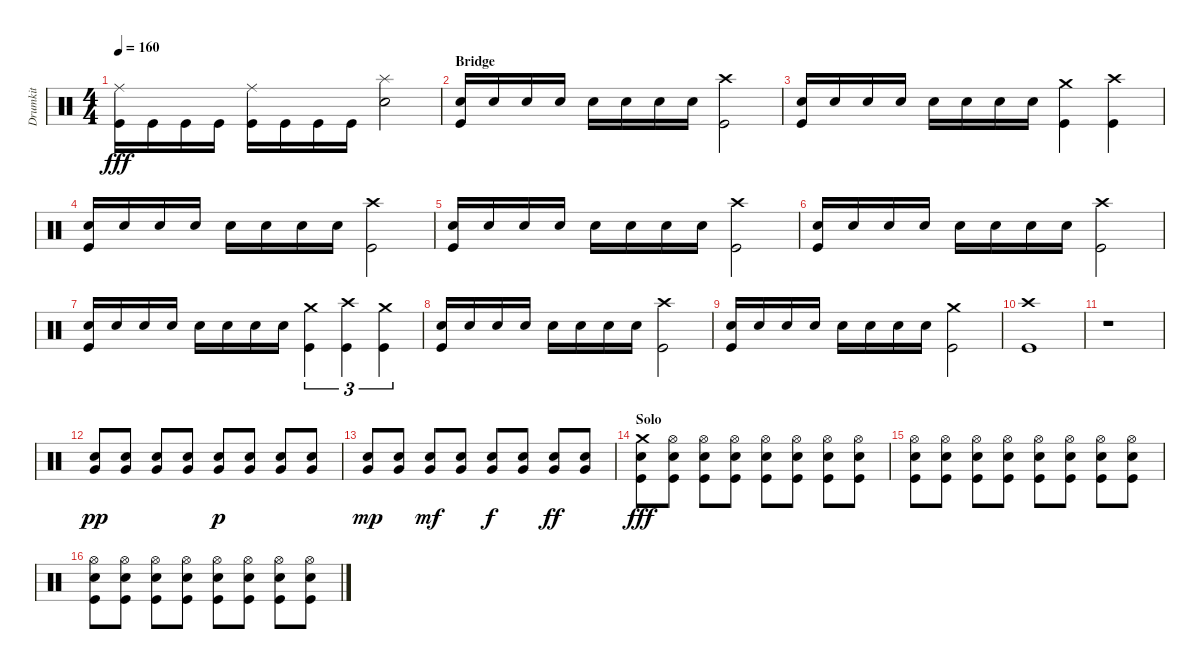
\track ("Drumkit" "Drumkit") {instrument percussion}
\staff {score}
\articulation defaults
\ts (4 4)
\tempo 160
\clef neutral
\ks c
("Kick (hit)" "Ride (middle)").16{dy fff} "Kick (hit)".16 "Kick (hit)".16 "Kick (hit)".16 ("Kick (hit)" "Ride (middle)").16 "Kick (hit)".16 "Kick (hit)".16 "Kick (hit)".16 ("Snare (hit) 2" "Splash (hit)").2 |
\section ("" "Bridge")
("Snare (hit) 2" "Kick (hit)").16 "Snare (hit) 2".16 "Snare (hit) 2".16 "Snare (hit) 2".16 "Snare (hit) 2".16 "Snare (hit) 2".16 "Snare (hit) 2".16 "Snare (hit) 2".16 ("Kick (hit)" "Crash high (hit)").2 |
("Snare (hit) 2" "Kick (hit)").16 "Snare (hit) 2".16 "Snare (hit) 2".16 "Snare (hit) 2".16 "Snare (hit) 2".16 "Snare (hit) 2".16 "Snare (hit) 2".16 "Snare (hit) 2".16 ("Kick (hit)" "Crash medium (hit)").4 ("Kick (hit)" "Crash high (hit)").4 |
("Snare (hit) 2" "Kick (hit)").16 "Snare (hit) 2".16 "Snare (hit) 2".16 "Snare (hit) 2".16 "Snare (hit) 2".16 "Snare (hit) 2".16 "Snare (hit) 2".16 "Snare (hit) 2".16 ("Kick (hit)" "Crash high (hit)").2 |
("Snare (hit) 2" "Kick (hit)").16 "Snare (hit) 2".16 "Snare (hit) 2".16 "Snare (hit) 2".16 "Snare (hit) 2".16 "Snare (hit) 2".16 "Snare (hit) 2".16 "Snare (hit) 2".16 ("Kick (hit)" "Crash high (hit)").2 |
("Snare (hit) 2" "Kick (hit)").16 "Snare (hit) 2".16 "Snare (hit) 2".16 "Snare (hit) 2".16 "Snare (hit) 2".16 "Snare (hit) 2".16 "Snare (hit) 2".16 "Snare (hit) 2".16 ("Kick (hit)" "Crash high (hit)").2 |
("Snare (hit) 2" "Kick (hit)").16 "Snare (hit) 2".16 "Snare (hit) 2".16 "Snare (hit) 2".16 "Snare (hit) 2".16 "Snare (hit) 2".16 "Snare (hit) 2".16 "Snare (hit) 2".16 ("Kick (hit)" "Crash medium (hit)").4{tu (3 2)} ("Kick (hit)" "Crash high (hit)").4{tu (3 2)} ("Kick (hit)" "Crash medium (hit)").4{tu (3 2)} |
("Snare (hit) 2" "Kick (hit)").16 "Snare (hit) 2".16 "Snare (hit) 2".16 "Snare (hit) 2".16 "Snare (hit) 2".16 "Snare (hit) 2".16 "Snare (hit) 2".16 "Snare (hit) 2".16 ("Kick (hit)" "Crash high (hit)").2 |
("Snare (hit) 2" "Kick (hit)").16 "Snare (hit) 2".16 "Snare (hit) 2".16 "Snare (hit) 2".16 "Snare (hit) 2".16 "Snare (hit) 2".16 "Snare (hit) 2".16 "Snare (hit) 2".16 ("Kick (hit)" "Crash medium (hit)").2 |
("Kick (hit)" "Crash high (hit)").1 |
r.1 |
("Very Low Tom (hit)" "Snare (hit) 2").8{dy pp} ("Very Low Tom (hit)" "Snare (hit) 2").8 ("Very Low Tom (hit)" "Snare (hit) 2").8 ("Very Low Tom (hit)" "Snare (hit) 2").8 ("Very Low Tom (hit)" "Snare (hit) 2").8{dy p} ("Very Low Tom (hit)" "Snare (hit) 2").8 ("Very Low Tom (hit)" "Snare (hit) 2").8 ("Very Low Tom (hit)" "Snare (hit) 2").8 |
("Very Low Tom (hit)" "Snare (hit) 2").8{dy mp} ("Very Low Tom (hit)" "Snare (hit) 2").8 ("Very Low Tom (hit)" "Snare (hit) 2").8{dy mf} ("Very Low Tom (hit)" "Snare (hit) 2").8 ("Very Low Tom (hit)" "Snare (hit) 2").8{dy f} ("Very Low Tom (hit)" "Snare (hit) 2").8 ("Very Low Tom (hit)" "Snare (hit) 2").8{dy ff} ("Very Low Tom (hit)" "Snare (hit) 2").8 |
\section ("" "Solo")
("Kick (hit)" "Crash medium (hit)" "Snare (hit) 2").8{dy fff} ("Kick (hit)" "Snare (hit) 2" "Hi-Hat (open)").8 ("Kick (hit)" "Hi-Hat (open)" "Snare (hit) 2").8 ("Kick (hit)" "Snare (hit) 2" "Hi-Hat (open)").8 ("Kick (hit)" "Hi-Hat (open)" "Snare (hit) 2").8 ("Kick (hit)" "Snare (hit) 2" "Hi-Hat (open)").8 ("Kick (hit)" "Hi-Hat (open)" "Snare (hit) 2").8 ("Kick (hit)" "Snare (hit) 2" "Hi-Hat (open)").8 |
("Kick (hit)" "Snare (hit) 2" "Hi-Hat (open)").8 ("Kick (hit)" "Snare (hit) 2" "Hi-Hat (open)").8 ("Kick (hit)" "Hi-Hat (open)" "Snare (hit) 2").8 ("Kick (hit)" "Snare (hit) 2" "Hi-Hat (open)").8 ("Kick (hit)" "Hi-Hat (open)" "Snare (hit) 2").8 ("Kick (hit)" "Snare (hit) 2" "Hi-Hat (open)").8 ("Kick (hit)" "Hi-Hat (open)" "Snare (hit) 2").8 ("Kick (hit)" "Snare (hit) 2" "Hi-Hat (open)").8 |
("Kick (hit)" "Snare (hit) 2" "Hi-Hat (open)").8 ("Kick (hit)" "Snare (hit) 2" "Hi-Hat (open)").8 ("Kick (hit)" "Hi-Hat (open)" "Snare (hit) 2").8 ("Kick (hit)" "Snare (hit) 2" "Hi-Hat (open)").8 ("Kick (hit)" "Hi-Hat (open)" "Snare (hit) 2").8 ("Kick (hit)" "Snare (hit) 2" "Hi-Hat (open)").8 ("Kick (hit)" "Hi-Hat (open)" "Snare (hit) 2").8 ("Kick (hit)" "Snare (hit) 2" "Hi-Hat (open)").8
